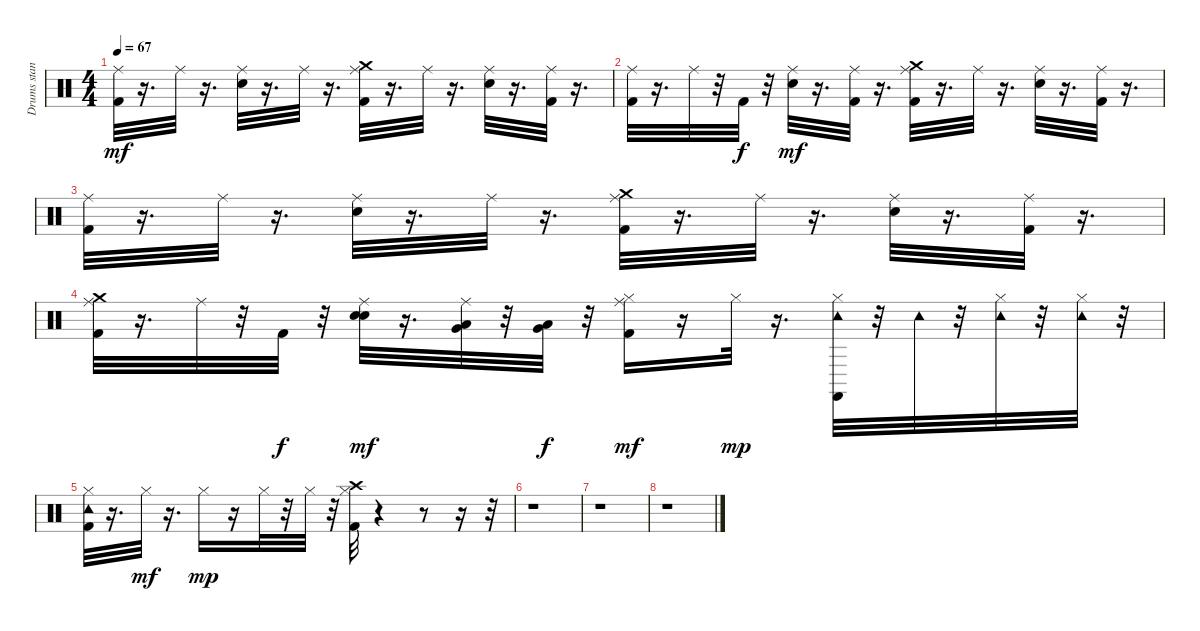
\track ("Drums stand. 1 ard" "Drums stan") {instrument percussion}
\staff {score}
\articulation defaults
\ts (4 4)
\tempo 67
\clef neutral
\ks c
("Kick (hit) 2" "Ride (middle)").32{dy mf} r.16{d} "Ride (middle)".32 r.16{d} ("Electric Snare (hit)" "Ride (middle)").32 r.16{d} "Ride (middle)".32 r.16{d} ("Kick (hit) 2" "Ride (middle)" "Crash medium (hit)").32 r.16{d} "Ride (middle)".32 r.16{d} ("Electric Snare (hit)" "Ride (middle)").32 r.16{d} ("Kick (hit) 2" "Ride (middle)").32 r.16{d} |
("Kick (hit) 2" "Ride (middle)").32 r.16{d} "Ride (middle)".32 r.32 "Kick (hit) 2".32{dy f} r.32 ("Electric Snare (hit)" "Ride (middle)").32{dy mf} r.16{d} ("Kick (hit) 2" "Ride (middle)").32 r.16{d} ("Kick (hit) 2" "Ride (middle)" "Crash medium (hit)").32 r.16{d} "Ride (middle)".32 r.16{d} ("Electric Snare (hit)" "Ride (middle)").32 r.16{d} ("Kick (hit) 2" "Ride (middle)").32 r.16{d} |
("Kick (hit) 2" "Ride (middle)").32 r.16{d} "Ride (middle)".32 r.16{d} ("Electric Snare (hit)" "Ride (middle)").32 r.16{d} "Ride (middle)".32 r.16{d} ("Kick (hit) 2" "Ride (middle)" "Crash medium (hit)").32 r.16{d} "Ride (middle)".32 r.16{d} ("Electric Snare (hit)" "Ride (middle)").32 r.16{d} ("Kick (hit) 2" "Ride (middle)").32 r.16{d} |
("Kick (hit) 2" "Ride (middle)" "Crash medium (hit)").32 r.16{d} "Ride (middle)".32 r.32 "Kick (hit) 2".32{dy f} r.32 ("Electric Snare (hit)" "Electric Snare (hit)" "Ride (middle)").32{dy mf} r.16{d} ("Ride (middle)" "Low Floor Tom (hit)" "Very Low Tom (hit)").32 r.32 ("Low Floor Tom (hit)" "Very Low Tom (hit)").32{dy f} r.32 ("Kick (hit) 2" "Ride (middle)" "Hi-Hat (closed)").16{dy mf} r.16 "Hi-Hat (closed)".32{dy mp} r.16{d} ("Castanets (hit)" "Tambourine (hit)" "Hi-Hat (closed)").32 r.32 "Tambourine (hit)".32 r.32 ("Tambourine (hit)" "Hi-Hat (closed)").32 r.32 ("Tambourine (hit)" "Hi-Hat (closed)").32 r.32 |
("Kick (hit) 2" "Tambourine (hit)" "Hi-Hat (closed)").32 r.16{d} "Hi-Hat (closed)".32{dy mf} r.16{d} "Hi-Hat (closed)".16{dy mp} r.16 "Hi-Hat (closed)".32 r.32 "Hi-Hat (closed)".32 r.32 ("Hi-Hat (closed)" "Kick (hit) 2" "Crash high (hit)").32 r.4 r.8 r.16 r.32 |
r.1 |
r.1 |
r.1
